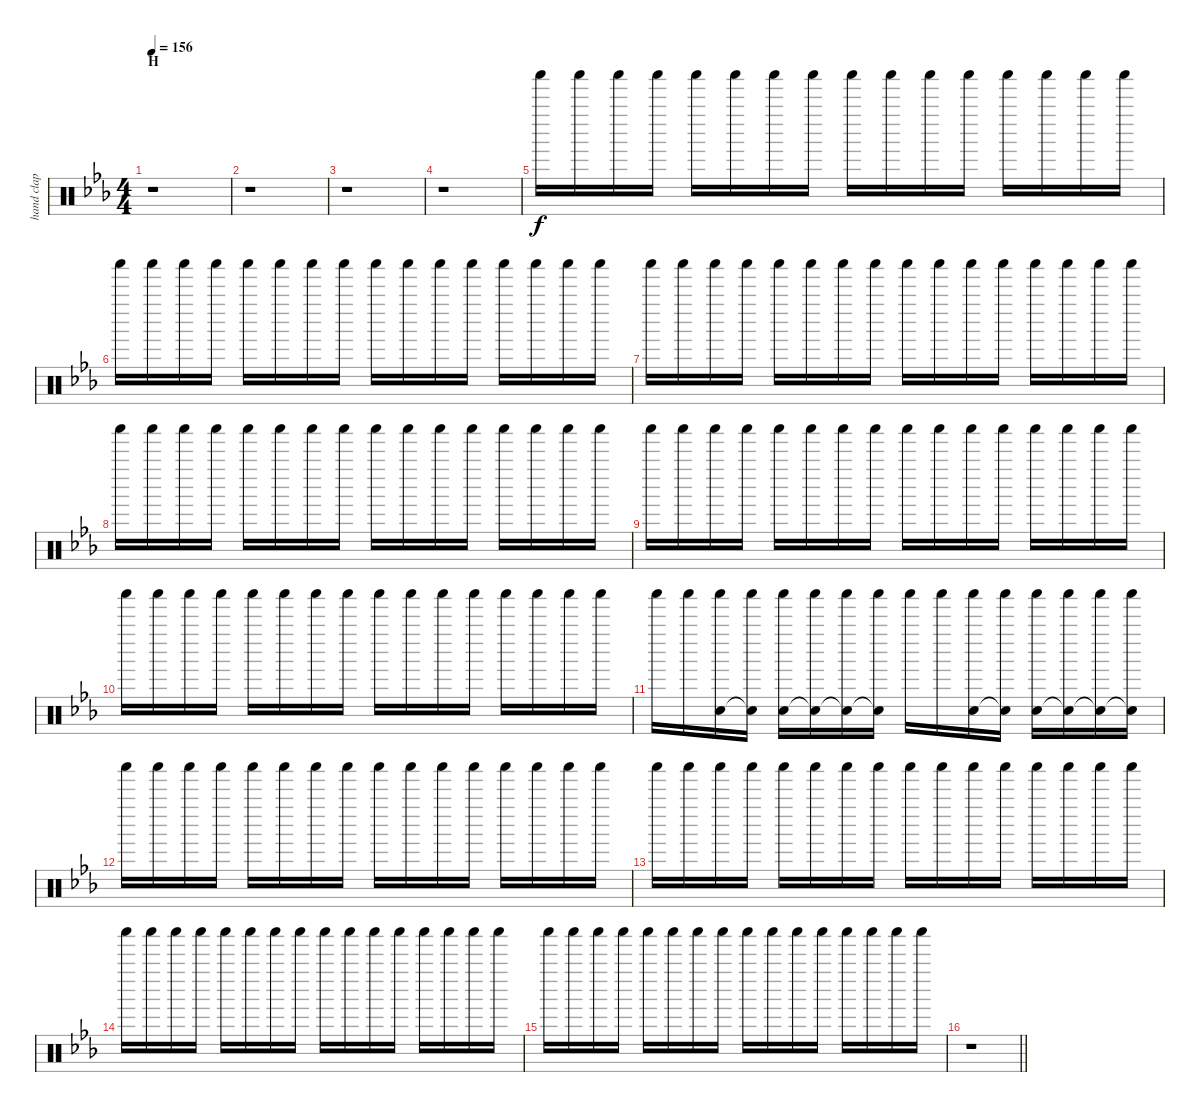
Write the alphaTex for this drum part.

\track ("hand clap + shaker" "hand clap ") {instrument percussion}
\staff {score}
\articulation defaults
\ts (4 4)
\section ("" "H")
\tempo 156
\clef neutral
\ks eb
r.1{dy f} |
r.1 |
r.1 |
r.1 |
"Shaker (hit)".16 "Shaker (hit)".16 "Shaker (hit)".16 "Shaker (hit)".16 "Shaker (hit)".16 "Shaker (hit)".16 "Shaker (hit)".16 "Shaker (hit)".16 "Shaker (hit)".16 "Shaker (hit)".16 "Shaker (hit)".16 "Shaker (hit)".16 "Shaker (hit)".16 "Shaker (hit)".16 "Shaker (hit)".16 "Shaker (hit)".16 |
"Shaker (hit)".16 "Shaker (hit)".16 "Shaker (hit)".16 "Shaker (hit)".16 "Shaker (hit)".16 "Shaker (hit)".16 "Shaker (hit)".16 "Shaker (hit)".16 "Shaker (hit)".16 "Shaker (hit)".16 "Shaker (hit)".16 "Shaker (hit)".16 "Shaker (hit)".16 "Shaker (hit)".16 "Shaker (hit)".16 "Shaker (hit)".16 |
"Shaker (hit)".16 "Shaker (hit)".16 "Shaker (hit)".16 "Shaker (hit)".16 "Shaker (hit)".16 "Shaker (hit)".16 "Shaker (hit)".16 "Shaker (hit)".16 "Shaker (hit)".16 "Shaker (hit)".16 "Shaker (hit)".16 "Shaker (hit)".16 "Shaker (hit)".16 "Shaker (hit)".16 "Shaker (hit)".16 "Shaker (hit)".16 |
"Shaker (hit)".16 "Shaker (hit)".16 "Shaker (hit)".16 "Shaker (hit)".16 "Shaker (hit)".16 "Shaker (hit)".16 "Shaker (hit)".16 "Shaker (hit)".16 "Shaker (hit)".16 "Shaker (hit)".16 "Shaker (hit)".16 "Shaker (hit)".16 "Shaker (hit)".16 "Shaker (hit)".16 "Shaker (hit)".16 "Shaker (hit)".16 |
"Shaker (hit)".16 "Shaker (hit)".16 "Shaker (hit)".16 "Shaker (hit)".16 "Shaker (hit)".16 "Shaker (hit)".16 "Shaker (hit)".16 "Shaker (hit)".16 "Shaker (hit)".16 "Shaker (hit)".16 "Shaker (hit)".16 "Shaker (hit)".16 "Shaker (hit)".16 "Shaker (hit)".16 "Shaker (hit)".16 "Shaker (hit)".16 |
"Shaker (hit)".16 "Shaker (hit)".16 "Shaker (hit)".16 "Shaker (hit)".16 "Shaker (hit)".16 "Shaker (hit)".16 "Shaker (hit)".16 "Shaker (hit)".16 "Shaker (hit)".16 "Shaker (hit)".16 "Shaker (hit)".16 "Shaker (hit)".16 "Shaker (hit)".16 "Shaker (hit)".16 "Shaker (hit)".16 "Shaker (hit)".16 |
"Shaker (hit)".16 "Shaker (hit)".16 ("Shaker (hit)" "Hand Clap (hit)").16 ("Shaker (hit)" "Snare (hit)"{t}).16 ("Shaker (hit)" "Hand Clap (hit)").16 ("Shaker (hit)" "Snare (hit)"{t}).16 ("Shaker (hit)" "Snare (hit)"{t}).16 ("Shaker (hit)" "Snare (hit)"{t}).16 "Shaker (hit)".16 "Shaker (hit)".16 ("Shaker (hit)" "Hand Clap (hit)").16 ("Shaker (hit)" "Hand Clap (hit)"{t}).16 ("Shaker (hit)" "Hand Clap (hit)").16 ("Shaker (hit)" "Snare (hit)"{t}).16 ("Shaker (hit)" "Snare (hit)"{t}).16 ("Shaker (hit)" "Snare (hit)"{t}).16 |
"Shaker (hit)".16 "Shaker (hit)".16 "Shaker (hit)".16 "Shaker (hit)".16 "Shaker (hit)".16 "Shaker (hit)".16 "Shaker (hit)".16 "Shaker (hit)".16 "Shaker (hit)".16 "Shaker (hit)".16 "Shaker (hit)".16 "Shaker (hit)".16 "Shaker (hit)".16 "Shaker (hit)".16 "Shaker (hit)".16 "Shaker (hit)".16 |
"Shaker (hit)".16 "Shaker (hit)".16 "Shaker (hit)".16 "Shaker (hit)".16 "Shaker (hit)".16 "Shaker (hit)".16 "Shaker (hit)".16 "Shaker (hit)".16 "Shaker (hit)".16 "Shaker (hit)".16 "Shaker (hit)".16 "Shaker (hit)".16 "Shaker (hit)".16 "Shaker (hit)".16 "Shaker (hit)".16 "Shaker (hit)".16 |
"Shaker (hit)".16 "Shaker (hit)".16 "Shaker (hit)".16 "Shaker (hit)".16 "Shaker (hit)".16 "Shaker (hit)".16 "Shaker (hit)".16 "Shaker (hit)".16 "Shaker (hit)".16 "Shaker (hit)".16 "Shaker (hit)".16 "Shaker (hit)".16 "Shaker (hit)".16 "Shaker (hit)".16 "Shaker (hit)".16 "Shaker (hit)".16 |
"Shaker (hit)".16 "Shaker (hit)".16 "Shaker (hit)".16 "Shaker (hit)".16 "Shaker (hit)".16 "Shaker (hit)".16 "Shaker (hit)".16 "Shaker (hit)".16 "Shaker (hit)".16 "Shaker (hit)".16 "Shaker (hit)".16 "Shaker (hit)".16 "Shaker (hit)".16 "Shaker (hit)".16 "Shaker (hit)".16 "Shaker (hit)".16 |
\barLineRight lightlight
r.1
